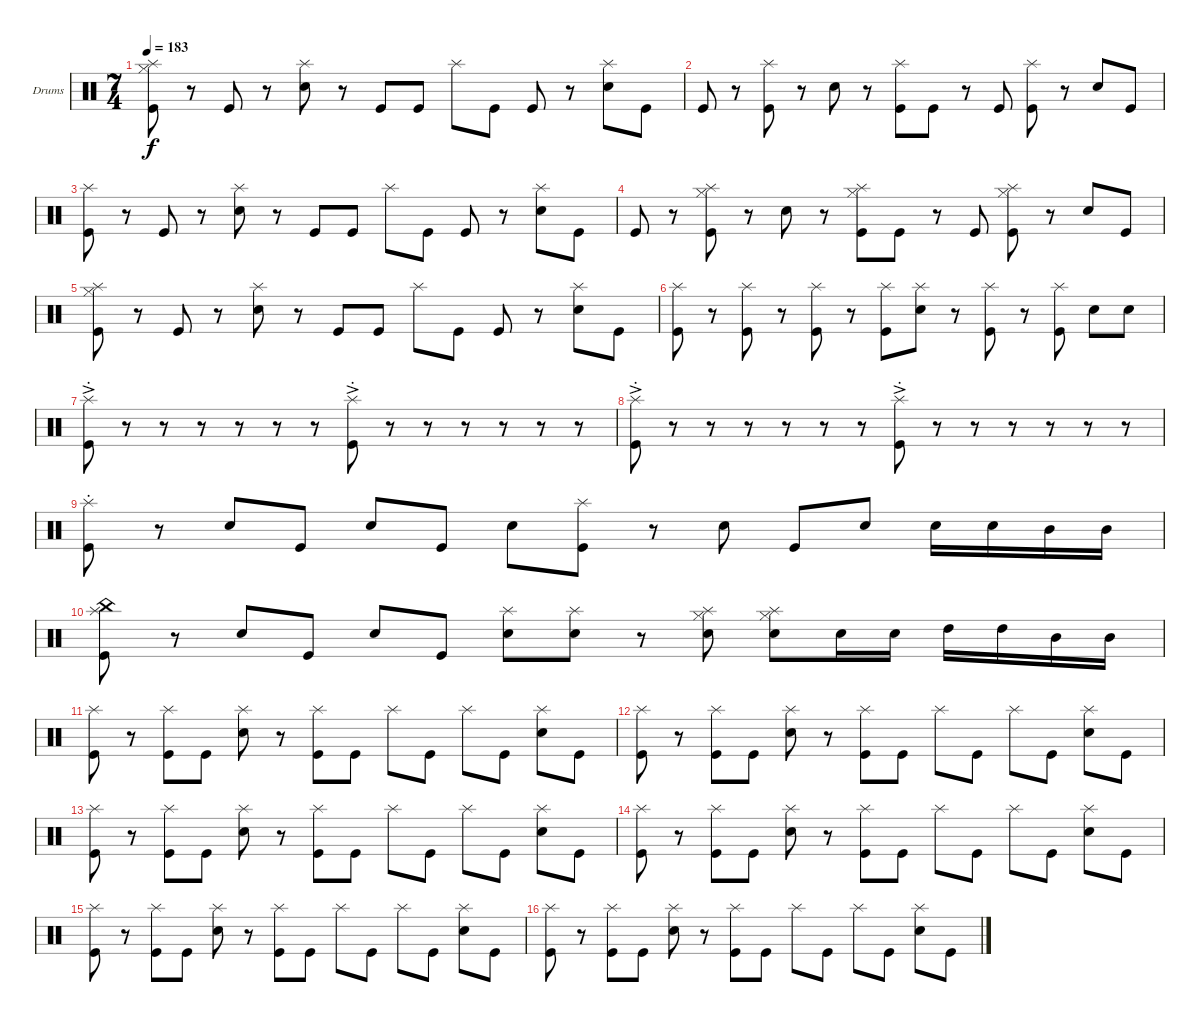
\bracketExtendMode groupsimilarinstruments
\firstSystemTrackNameOrientation horizontal
\otherSystemsTrackNameOrientation horizontal
\track ("Drumkit" "Drums") {instrument percussion}
\staff {score}
\articulation defaults
\ts (7 4)
\tempo 183
\clef neutral
\ks c
("Kick (hit)" "Hi-Hat (closed)" "Splash (hit)").8{dy f} r.8 "Kick (hit)".8 r.8 ("Snare (hit) 2" "Splash (hit)").8 r.8 "Kick (hit)".8 "Kick (hit)".8 "Splash (hit)".8 "Kick (hit)".8 "Kick (hit)".8 r.8 ("Snare (hit) 2" "Splash (hit)").8 "Kick (hit)".8 |
"Kick (hit)".8 r.8 ("Kick (hit)" "Splash (hit)").8 r.8 "Snare (hit) 2".8 r.8 ("Kick (hit)" "Splash (hit)").8 "Kick (hit)".8 r.8 "Kick (hit)".8 ("Kick (hit)" "Splash (hit)").8 r.8 "Snare (hit) 2".8 "Kick (hit)".8 |
("Kick (hit)" "Splash (hit)").8 r.8 "Kick (hit)".8 r.8 ("Snare (hit) 2" "Splash (hit)").8 r.8 "Kick (hit)".8 "Kick (hit)".8 "Splash (hit)".8 "Kick (hit)".8 "Kick (hit)".8 r.8 ("Snare (hit) 2" "Splash (hit)").8 "Kick (hit)".8 |
"Kick (hit)".8 r.8 ("Kick (hit)" "Hi-Hat (closed)" "Splash (hit)").8 r.8 "Snare (hit) 2".8 r.8 ("Kick (hit)" "Hi-Hat (closed)" "Splash (hit)").8 "Kick (hit)".8 r.8 "Kick (hit)".8 ("Kick (hit)" "Hi-Hat (closed)" "Splash (hit)").8 r.8 "Snare (hit) 2".8 "Kick (hit)".8 |
("Kick (hit)" "Hi-Hat (closed)" "Splash (hit)").8 r.8 "Kick (hit)".8 r.8 ("Snare (hit) 2" "Splash (hit)").8 r.8 "Kick (hit)".8 "Kick (hit)".8 "Splash (hit)".8 "Kick (hit)".8 "Kick (hit)".8 r.8 ("Snare (hit) 2" "Splash (hit)").8 "Kick (hit)".8 |
("Kick (hit)" "Splash (hit)").8 r.8 ("Kick (hit)" "Splash (hit)").8 r.8 ("Kick (hit)" "Splash (hit)").8 r.8 ("Kick (hit)" "Splash (hit)").8 ("Snare (hit) 2" "Splash (hit)").8 r.8 ("Kick (hit)" "Splash (hit)").8 r.8 ("Kick (hit)" "Splash (hit)").8 "Snare (hit) 2".8 "Snare (hit) 2".8 |
("Kick (hit)"{ac} "Splash (hit)"{ac st}).8 r.8 r.8 r.8 r.8 r.8 r.8 ("Kick (hit)"{ac} "Splash (hit)"{ac st}).8 r.8 r.8 r.8 r.8 r.8 r.8 |
("Kick (hit)"{ac} "Splash (hit)"{ac st}).8 r.8 r.8 r.8 r.8 r.8 r.8 ("Kick (hit)"{ac} "Splash (hit)"{ac st}).8 r.8 r.8 r.8 r.8 r.8 r.8 |
("Kick (hit)" "Splash (hit)"{st}).8 r.8 "Snare (hit) 2".8 "Kick (hit)".8 "Snare (hit) 2".8 "Kick (hit)".8 "Snare (hit) 2".8 ("Kick (hit)" "Splash (hit)").8 r.8 "Snare (hit) 2".8 "Kick (hit)".8 "Snare (hit) 2".8 "Snare (hit) 2".16 "Snare (hit) 2".16 "Mid Tom (hit)".16 "Mid Tom (hit)".16 |
("Kick (hit)" "China (hit)" "Splash (hit)").8 r.8 "Snare (hit) 2".8 "Kick (hit)".8 "Snare (hit) 2".8 "Kick (hit)".8 ("Snare (hit) 2" "Splash (hit)").8 ("Snare (hit) 2" "Splash (hit)").8 r.8 ("Snare (hit) 2" "Hi-Hat (closed)" "Splash (hit)").8 ("Snare (hit) 2" "Hi-Hat (closed)" "Splash (hit)").8 "Snare (hit) 2".16 "Snare (hit) 2".16 "High Tom (hit)".16 "High Tom (hit)".16 "Mid Tom (hit)".16 "Mid Tom (hit)".16 |
("Kick (hit)" "Splash (hit)").8 r.8 ("Kick (hit)" "Splash (hit)").8 "Kick (hit)".8 ("Snare (hit) 2" "Splash (hit)").8 r.8 ("Kick (hit)" "Splash (hit)").8 "Kick (hit)".8 "Splash (hit)".8 "Kick (hit)".8 "Splash (hit)".8 "Kick (hit)".8 ("Snare (hit) 2" "Splash (hit)").8 "Kick (hit)".8 |
("Kick (hit)" "Splash (hit)").8 r.8 ("Kick (hit)" "Splash (hit)").8 "Kick (hit)".8 ("Snare (hit) 2" "Splash (hit)").8 r.8 ("Kick (hit)" "Splash (hit)").8 "Kick (hit)".8 "Splash (hit)".8 "Kick (hit)".8 "Splash (hit)".8 "Kick (hit)".8 ("Snare (hit) 2" "Splash (hit)").8 "Kick (hit)".8 |
("Kick (hit)" "Splash (hit)").8 r.8 ("Kick (hit)" "Splash (hit)").8 "Kick (hit)".8 ("Snare (hit) 2" "Splash (hit)").8 r.8 ("Kick (hit)" "Splash (hit)").8 "Kick (hit)".8 "Splash (hit)".8 "Kick (hit)".8 "Splash (hit)".8 "Kick (hit)".8 ("Snare (hit) 2" "Splash (hit)").8 "Kick (hit)".8 |
("Kick (hit)" "Splash (hit)").8 r.8 ("Kick (hit)" "Splash (hit)").8 "Kick (hit)".8 ("Snare (hit) 2" "Splash (hit)").8 r.8 ("Kick (hit)" "Splash (hit)").8 "Kick (hit)".8 "Splash (hit)".8 "Kick (hit)".8 "Splash (hit)".8 "Kick (hit)".8 ("Snare (hit) 2" "Splash (hit)").8 "Kick (hit)".8 |
("Kick (hit)" "Splash (hit)").8 r.8 ("Kick (hit)" "Splash (hit)").8 "Kick (hit)".8 ("Snare (hit) 2" "Splash (hit)").8 r.8 ("Kick (hit)" "Splash (hit)").8 "Kick (hit)".8 "Splash (hit)".8 "Kick (hit)".8 "Splash (hit)".8 "Kick (hit)".8 ("Snare (hit) 2" "Splash (hit)").8 "Kick (hit)".8 |
("Kick (hit)" "Splash (hit)").8 r.8 ("Kick (hit)" "Splash (hit)").8 "Kick (hit)".8 ("Snare (hit) 2" "Splash (hit)").8 r.8 ("Kick (hit)" "Splash (hit)").8 "Kick (hit)".8 "Splash (hit)".8 "Kick (hit)".8 "Splash (hit)".8 "Kick (hit)".8 ("Snare (hit) 2" "Splash (hit)").8 "Kick (hit)".8
